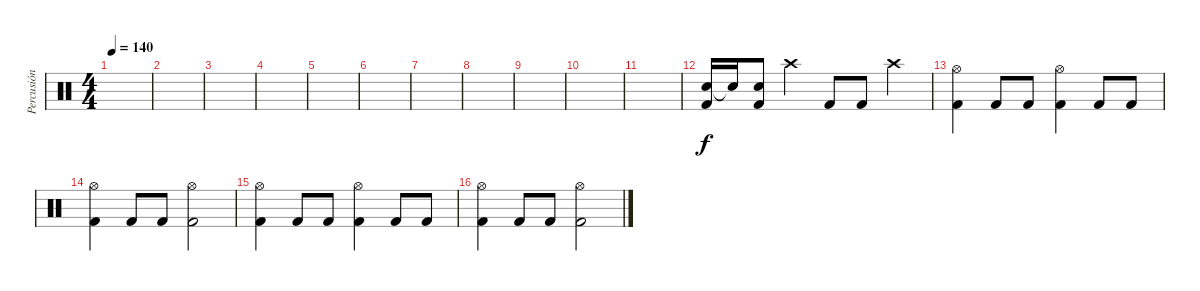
\track ("Percusión" "Percusión") {instrument percussion}
\staff {score}
\articulation defaults
\ts (4 4)
\tempo 140
\clef neutral
\ks c
|
|
|
|
|
|
|
|
|
|
|
("Electric Snare (hit)" "Kick (hit) 2").16 "Electric Snare (hit)"{t}.16 ("Electric Snare (hit)" "Kick (hit) 2").8 "Crash high (hit)".4 "Kick (hit) 2".8 "Kick (hit) 2".8 "Crash high (hit)".4 |
("Hi-Hat (open)" "Kick (hit) 2").4 "Kick (hit) 2".8 "Kick (hit) 2".8 ("Hi-Hat (open)" "Kick (hit) 2").4 "Kick (hit) 2".8 "Kick (hit) 2".8 |
("Hi-Hat (open)" "Kick (hit) 2").4 "Kick (hit) 2".8 "Kick (hit) 2".8 ("Hi-Hat (open)" "Kick (hit) 2").2 |
("Hi-Hat (open)" "Kick (hit) 2").4 "Kick (hit) 2".8 "Kick (hit) 2".8 ("Hi-Hat (open)" "Kick (hit) 2").4 "Kick (hit) 2".8 "Kick (hit) 2".8 |
("Hi-Hat (open)" "Kick (hit) 2").4 "Kick (hit) 2".8 "Kick (hit) 2".8 ("Hi-Hat (open)" "Kick (hit) 2").2
